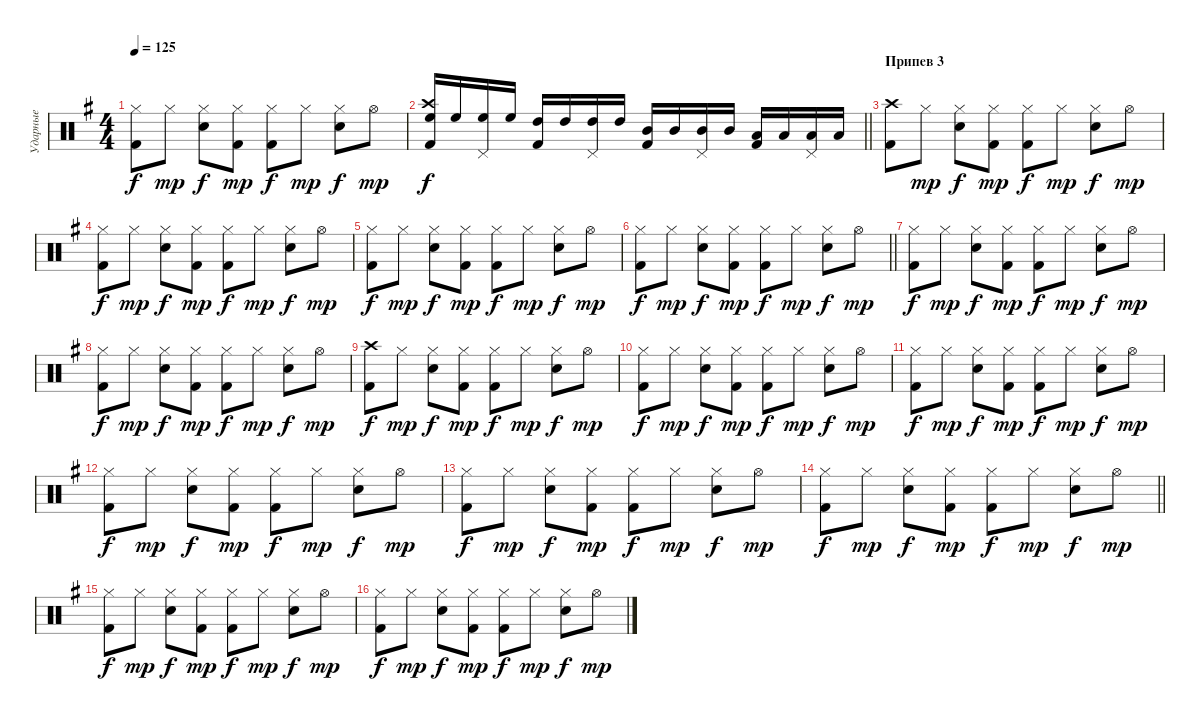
\track ("Ударные" "Ударные") {instrument percussion}
\staff {score}
\articulation defaults
\ts (4 4)
\tempo 125
\clef neutral
\ks eminor
("Hi-Hat (closed)" "Kick (hit) 2").8{dy f} "Hi-Hat (closed)".8{dy mp} ("Hi-Hat (closed)" "Snare (hit) 2").8{dy f} ("Hi-Hat (closed)" "Kick (hit) 2").8{dy mp} ("Hi-Hat (closed)" "Kick (hit) 2").8{dy f} "Hi-Hat (closed)".8{dy mp} ("Hi-Hat (closed)" "Snare (hit) 2").8{dy f} "Hi-Hat (open)".8{dy mp} |
\barLineRight lightlight
("Crash high (hit)" "High Floor Tom (hit)" "Kick (hit) 2").16{dy f} "High Floor Tom (hit)".16 ("Pedal Hi-Hat (hit)" "High Floor Tom (hit)").16 "High Floor Tom (hit)".16 ("High Tom (hit)" "Kick (hit) 2").16 "High Tom (hit)".16 ("Pedal Hi-Hat (hit)" "High Tom (hit)").16 "High Tom (hit)".16 ("Mid Tom (hit)" "Kick (hit) 2").16 "Mid Tom (hit)".16 ("Pedal Hi-Hat (hit)" "Mid Tom (hit)").16 "Mid Tom (hit)".16 ("Low Tom (hit)" "Kick (hit) 2").16 "Low Tom (hit)".16 ("Pedal Hi-Hat (hit)" "Low Tom (hit)").16 "Low Tom (hit)".16 |
\section ("" "Припев 3")
("Crash high (hit)" "Kick (hit) 2").8 "Hi-Hat (closed)".8{dy mp} ("Hi-Hat (closed)" "Snare (hit) 2").8{dy f} ("Hi-Hat (closed)" "Kick (hit) 2").8{dy mp} ("Hi-Hat (closed)" "Kick (hit) 2").8{dy f} "Hi-Hat (closed)".8{dy mp} ("Hi-Hat (closed)" "Snare (hit) 2").8{dy f} "Hi-Hat (open)".8{dy mp} |
("Hi-Hat (closed)" "Kick (hit) 2").8{dy f} "Hi-Hat (closed)".8{dy mp} ("Hi-Hat (closed)" "Snare (hit) 2").8{dy f} ("Hi-Hat (closed)" "Kick (hit) 2").8{dy mp} ("Hi-Hat (closed)" "Kick (hit) 2").8{dy f} "Hi-Hat (closed)".8{dy mp} ("Hi-Hat (closed)" "Snare (hit) 2").8{dy f} "Hi-Hat (open)".8{dy mp} |
("Hi-Hat (closed)" "Kick (hit) 2").8{dy f} "Hi-Hat (closed)".8{dy mp} ("Hi-Hat (closed)" "Snare (hit) 2").8{dy f} ("Hi-Hat (closed)" "Kick (hit) 2").8{dy mp} ("Hi-Hat (closed)" "Kick (hit) 2").8{dy f} "Hi-Hat (closed)".8{dy mp} ("Hi-Hat (closed)" "Snare (hit) 2").8{dy f} "Hi-Hat (open)".8{dy mp} |
\barLineRight lightlight
("Hi-Hat (closed)" "Kick (hit) 2").8{dy f} "Hi-Hat (closed)".8{dy mp} ("Hi-Hat (closed)" "Snare (hit) 2").8{dy f} ("Hi-Hat (closed)" "Kick (hit) 2").8{dy mp} ("Hi-Hat (closed)" "Kick (hit) 2").8{dy f} "Hi-Hat (closed)".8{dy mp} ("Hi-Hat (closed)" "Snare (hit) 2").8{dy f} "Hi-Hat (open)".8{dy mp} |
("Hi-Hat (closed)" "Kick (hit) 2").8{dy f} "Hi-Hat (closed)".8{dy mp} ("Hi-Hat (closed)" "Snare (hit) 2").8{dy f} ("Hi-Hat (closed)" "Kick (hit) 2").8{dy mp} ("Hi-Hat (closed)" "Kick (hit) 2").8{dy f} "Hi-Hat (closed)".8{dy mp} ("Hi-Hat (closed)" "Snare (hit) 2").8{dy f} "Hi-Hat (open)".8{dy mp} |
("Hi-Hat (closed)" "Kick (hit) 2").8{dy f} "Hi-Hat (closed)".8{dy mp} ("Hi-Hat (closed)" "Snare (hit) 2").8{dy f} ("Hi-Hat (closed)" "Kick (hit) 2").8{dy mp} ("Hi-Hat (closed)" "Kick (hit) 2").8{dy f} "Hi-Hat (closed)".8{dy mp} ("Hi-Hat (closed)" "Snare (hit) 2").8{dy f} "Hi-Hat (open)".8{dy mp} |
("Crash high (hit)" "Kick (hit) 2").8{dy f} "Hi-Hat (closed)".8{dy mp} ("Hi-Hat (closed)" "Snare (hit) 2").8{dy f} ("Hi-Hat (closed)" "Kick (hit) 2").8{dy mp} ("Hi-Hat (closed)" "Kick (hit) 2").8{dy f} "Hi-Hat (closed)".8{dy mp} ("Hi-Hat (closed)" "Snare (hit) 2").8{dy f} "Hi-Hat (open)".8{dy mp} |
("Hi-Hat (closed)" "Kick (hit) 2").8{dy f} "Hi-Hat (closed)".8{dy mp} ("Hi-Hat (closed)" "Snare (hit) 2").8{dy f} ("Hi-Hat (closed)" "Kick (hit) 2").8{dy mp} ("Hi-Hat (closed)" "Kick (hit) 2").8{dy f} "Hi-Hat (closed)".8{dy mp} ("Hi-Hat (closed)" "Snare (hit) 2").8{dy f} "Hi-Hat (open)".8{dy mp} |
("Hi-Hat (closed)" "Kick (hit) 2").8{dy f} "Hi-Hat (closed)".8{dy mp} ("Hi-Hat (closed)" "Snare (hit) 2").8{dy f} ("Hi-Hat (closed)" "Kick (hit) 2").8{dy mp} ("Hi-Hat (closed)" "Kick (hit) 2").8{dy f} "Hi-Hat (closed)".8{dy mp} ("Hi-Hat (closed)" "Snare (hit) 2").8{dy f} "Hi-Hat (open)".8{dy mp} |
("Hi-Hat (closed)" "Kick (hit) 2").8{dy f} "Hi-Hat (closed)".8{dy mp} ("Hi-Hat (closed)" "Snare (hit) 2").8{dy f} ("Hi-Hat (closed)" "Kick (hit) 2").8{dy mp} ("Hi-Hat (closed)" "Kick (hit) 2").8{dy f} "Hi-Hat (closed)".8{dy mp} ("Hi-Hat (closed)" "Snare (hit) 2").8{dy f} "Hi-Hat (open)".8{dy mp} |
("Hi-Hat (closed)" "Kick (hit) 2").8{dy f} "Hi-Hat (closed)".8{dy mp} ("Hi-Hat (closed)" "Snare (hit) 2").8{dy f} ("Hi-Hat (closed)" "Kick (hit) 2").8{dy mp} ("Hi-Hat (closed)" "Kick (hit) 2").8{dy f} "Hi-Hat (closed)".8{dy mp} ("Hi-Hat (closed)" "Snare (hit) 2").8{dy f} "Hi-Hat (open)".8{dy mp} |
\barLineRight lightlight
("Hi-Hat (closed)" "Kick (hit) 2").8{dy f} "Hi-Hat (closed)".8{dy mp} ("Hi-Hat (closed)" "Snare (hit) 2").8{dy f} ("Hi-Hat (closed)" "Kick (hit) 2").8{dy mp} ("Hi-Hat (closed)" "Kick (hit) 2").8{dy f} "Hi-Hat (closed)".8{dy mp} ("Hi-Hat (closed)" "Snare (hit) 2").8{dy f} "Hi-Hat (open)".8{dy mp} |
("Hi-Hat (closed)" "Kick (hit) 2").8{dy f} "Hi-Hat (closed)".8{dy mp} ("Hi-Hat (closed)" "Snare (hit) 2").8{dy f} ("Hi-Hat (closed)" "Kick (hit) 2").8{dy mp} ("Hi-Hat (closed)" "Kick (hit) 2").8{dy f} "Hi-Hat (closed)".8{dy mp} ("Hi-Hat (closed)" "Snare (hit) 2").8{dy f} "Hi-Hat (open)".8{dy mp} |
("Hi-Hat (closed)" "Kick (hit) 2").8{dy f} "Hi-Hat (closed)".8{dy mp} ("Hi-Hat (closed)" "Snare (hit) 2").8{dy f} ("Hi-Hat (closed)" "Kick (hit) 2").8{dy mp} ("Hi-Hat (closed)" "Kick (hit) 2").8{dy f} "Hi-Hat (closed)".8{dy mp} ("Hi-Hat (closed)" "Snare (hit) 2").8{dy f} "Hi-Hat (open)".8{dy mp}
